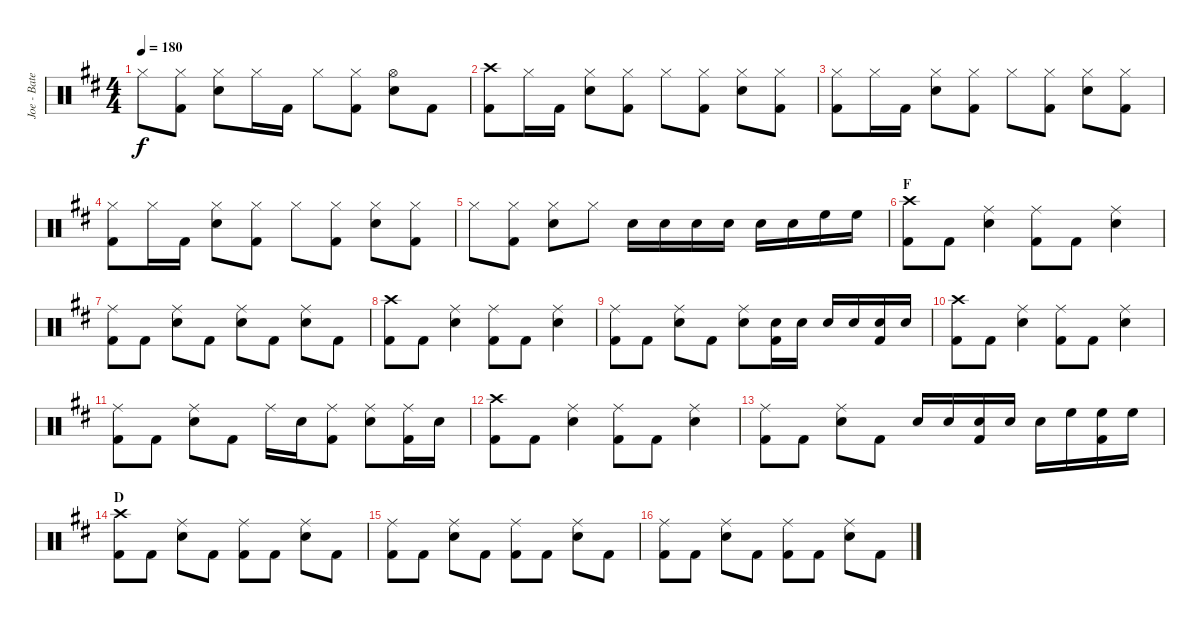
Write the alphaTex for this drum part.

\track ("Joe - Batería -" "Joe - Bate") {instrument percussion}
\staff {score}
\articulation defaults
\ts (4 4)
\tempo 180
\clef neutral
\ks bminor "Hi-Hat (closed)".8{dy f}
("Hi-Hat (closed)" "Kick (hit) 2").8 ("Hi-Hat (closed)" "Snare (hit) 2").8 "Hi-Hat (closed)".16 "Kick (hit) 2".16 "Hi-Hat (closed)".8 ("Hi-Hat (closed)" "Kick (hit) 2").8 ("Hi-Hat (open)" "Snare (hit) 2").8 "Kick (hit) 2".8 |
\section ("" "")
("Crash high (hit)" "Kick (hit) 2").8 "Hi-Hat (closed)".16 "Kick (hit) 2".16 ("Hi-Hat (closed)" "Snare (hit) 2").8 ("Hi-Hat (closed)" "Kick (hit) 2").8 "Hi-Hat (closed)".8 ("Hi-Hat (closed)" "Kick (hit) 2").8 ("Hi-Hat (closed)" "Snare (hit) 2").8 ("Hi-Hat (closed)" "Kick (hit) 2").8 |
("Hi-Hat (closed)" "Kick (hit) 2").8 "Hi-Hat (closed)".16 "Kick (hit) 2".16 ("Hi-Hat (closed)" "Snare (hit) 2").8 ("Hi-Hat (closed)" "Kick (hit) 2").8 "Hi-Hat (closed)".8 ("Hi-Hat (closed)" "Kick (hit) 2").8 ("Hi-Hat (closed)" "Snare (hit) 2").8 ("Hi-Hat (closed)" "Kick (hit) 2").8 |
\section ("" "")
("Hi-Hat (closed)" "Kick (hit) 2").8 "Hi-Hat (closed)".16 "Kick (hit) 2".16 ("Hi-Hat (closed)" "Snare (hit) 2").8 ("Hi-Hat (closed)" "Kick (hit) 2").8 "Hi-Hat (closed)".8 ("Hi-Hat (closed)" "Kick (hit) 2").8 ("Hi-Hat (closed)" "Snare (hit) 2").8 ("Hi-Hat (closed)" "Kick (hit) 2").8 |
"Hi-Hat (closed)".8 ("Hi-Hat (closed)" "Kick (hit) 2").8 ("Hi-Hat (closed)" "Snare (hit) 2").8 "Hi-Hat (closed)".8 "Snare (hit) 2".16 "Snare (hit) 2".16 "Snare (hit) 2".16 "Snare (hit) 2".16 "Snare (hit) 2".16 "Snare (hit) 2".16 "High Floor Tom (hit)".16 "High Floor Tom (hit)".16 |
\section ("" "F")
("Crash high (hit)" "Kick (hit) 2").8 "Kick (hit) 2".8 ("Ride (middle)" "Snare (hit) 2").4 ("Ride (middle)" "Kick (hit) 2").8 "Kick (hit) 2".8 ("Ride (middle)" "Snare (hit) 2").4 |
("Ride (middle)" "Kick (hit) 2").8 "Kick (hit) 2".8 ("Ride (middle)" "Snare (hit) 2").8 "Kick (hit) 2".8 ("Ride (middle)" "Snare (hit) 2").8 "Kick (hit) 2".8 ("Ride (middle)" "Snare (hit) 2").8 "Kick (hit) 2".8 |
\section ("" "")
("Crash high (hit)" "Kick (hit) 2").8 "Kick (hit) 2".8 ("Ride (middle)" "Snare (hit) 2").4 ("Ride (middle)" "Kick (hit) 2").8 "Kick (hit) 2".8 ("Ride (middle)" "Snare (hit) 2").4 |
("Ride (middle)" "Kick (hit) 2").8 "Kick (hit) 2".8 ("Ride (middle)" "Snare (hit) 2").8 "Kick (hit) 2".8 ("Ride (middle)" "Snare (hit) 2").8 ("Snare (hit) 2" "Kick (hit) 2").16 "Snare (hit) 2".16 "Snare (hit) 2".16 "Snare (hit) 2".16 ("Snare (hit) 2" "Kick (hit) 2").16 "Snare (hit) 2".16 |
\section ("" "")
("Crash high (hit)" "Kick (hit) 2").8 "Kick (hit) 2".8 ("Ride (middle)" "Snare (hit) 2").4 ("Ride (middle)" "Kick (hit) 2").8 "Kick (hit) 2".8 ("Ride (middle)" "Snare (hit) 2").4 |
("Ride (middle)" "Kick (hit) 2").8 "Kick (hit) 2".8 ("Ride (middle)" "Snare (hit) 2").8 "Kick (hit) 2".8 "Ride (middle)".16 "Snare (hit) 2".16 ("Ride (middle)" "Kick (hit) 2").8 ("Ride (middle)" "Snare (hit) 2").8 ("Ride (middle)" "Kick (hit) 2").16 "Snare (hit) 2".16 |
\section ("" "")
("Crash high (hit)" "Kick (hit) 2").8 "Kick (hit) 2".8 ("Ride (middle)" "Snare (hit) 2").4 ("Ride (middle)" "Kick (hit) 2").8 "Kick (hit) 2".8 ("Ride (middle)" "Snare (hit) 2").4 |
("Ride (middle)" "Kick (hit) 2").8 "Kick (hit) 2".8 ("Ride (middle)" "Snare (hit) 2").8 "Kick (hit) 2".8 "Snare (hit) 2".16 "Snare (hit) 2".16 ("Snare (hit) 2" "Kick (hit) 2").16 "Snare (hit) 2".16 "Snare (hit) 2".16 "High Floor Tom (hit)".16 ("High Floor Tom (hit)" "Kick (hit) 2").16 "High Floor Tom (hit)".16 |
\section ("" "D")
("Crash high (hit)" "Kick (hit) 2").8 "Kick (hit) 2".8 ("Ride (middle)" "Snare (hit) 2").8 "Kick (hit) 2".8 ("Ride (middle)" "Kick (hit) 2").8 "Kick (hit) 2".8 ("Ride (middle)" "Snare (hit) 2").8 "Kick (hit) 2".8 |
("Ride (middle)" "Kick (hit) 2").8 "Kick (hit) 2".8 ("Ride (middle)" "Snare (hit) 2").8 "Kick (hit) 2".8 ("Ride (middle)" "Kick (hit) 2").8 "Kick (hit) 2".8 ("Ride (middle)" "Snare (hit) 2").8 "Kick (hit) 2".8 |
("Ride (middle)" "Kick (hit) 2").8 "Kick (hit) 2".8 ("Ride (middle)" "Snare (hit) 2").8 "Kick (hit) 2".8 ("Ride (middle)" "Kick (hit) 2").8 "Kick (hit) 2".8 ("Ride (middle)" "Snare (hit) 2").8 "Kick (hit) 2".8
